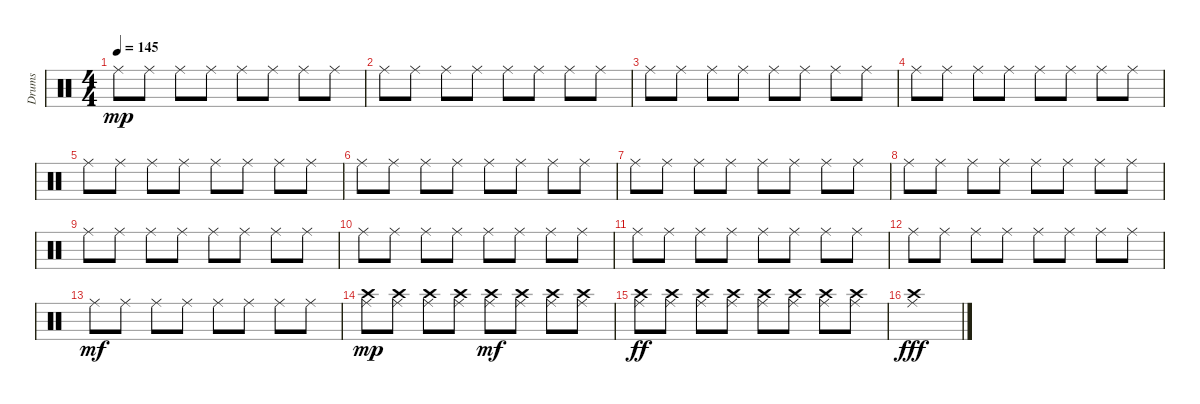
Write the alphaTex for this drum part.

\track ("Drums" "Drums") {instrument percussion}
\staff {score}
\articulation defaults
\ts (4 4)
\tempo 145
\clef neutral
\ks c "Ride (middle)".8{dy mp} "Ride (middle)".8 "Ride (middle)".8 "Ride (middle)".8 "Ride (middle)".8 "Ride (middle)".8 "Ride (middle)".8 "Ride (middle)".8
|
"Ride (middle)".8 "Ride (middle)".8 "Ride (middle)".8 "Ride (middle)".8 "Ride (middle)".8 "Ride (middle)".8 "Ride (middle)".8 "Ride (middle)".8 |
"Ride (middle)".8 "Ride (middle)".8 "Ride (middle)".8 "Ride (middle)".8 "Ride (middle)".8 "Ride (middle)".8 "Ride (middle)".8 "Ride (middle)".8 |
"Ride (middle)".8 "Ride (middle)".8 "Ride (middle)".8 "Ride (middle)".8 "Ride (middle)".8 "Ride (middle)".8 "Ride (middle)".8 "Ride (middle)".8 |
"Ride (middle)".8 "Ride (middle)".8 "Ride (middle)".8 "Ride (middle)".8 "Ride (middle)".8 "Ride (middle)".8 "Ride (middle)".8 "Ride (middle)".8 |
"Ride (middle)".8 "Ride (middle)".8 "Ride (middle)".8 "Ride (middle)".8 "Ride (middle)".8 "Ride (middle)".8 "Ride (middle)".8 "Ride (middle)".8 |
"Ride (middle)".8 "Ride (middle)".8 "Ride (middle)".8 "Ride (middle)".8 "Ride (middle)".8 "Ride (middle)".8 "Ride (middle)".8 "Ride (middle)".8 |
"Ride (middle)".8 "Ride (middle)".8 "Ride (middle)".8 "Ride (middle)".8 "Ride (middle)".8 "Ride (middle)".8 "Ride (middle)".8 "Ride (middle)".8 |
"Ride (middle)".8 "Ride (middle)".8 "Ride (middle)".8 "Ride (middle)".8 "Ride (middle)".8 "Ride (middle)".8 "Ride (middle)".8 "Ride (middle)".8 |
"Ride (middle)".8 "Ride (middle)".8 "Ride (middle)".8 "Ride (middle)".8 "Ride (middle)".8 "Ride (middle)".8 "Ride (middle)".8 "Ride (middle)".8 |
"Ride (middle)".8 "Ride (middle)".8 "Ride (middle)".8 "Ride (middle)".8 "Ride (middle)".8 "Ride (middle)".8 "Ride (middle)".8 "Ride (middle)".8 |
"Ride (middle)".8 "Ride (middle)".8 "Ride (middle)".8 "Ride (middle)".8 "Ride (middle)".8 "Ride (middle)".8 "Ride (middle)".8 "Ride (middle)".8 |
"Ride (middle)".8{dy mf} "Ride (middle)".8 "Ride (middle)".8 "Ride (middle)".8 "Ride (middle)".8 "Ride (middle)".8 "Ride (middle)".8 "Ride (middle)".8 |
("Ride (middle)" "Crash high (hit)").8{dy mp} ("Ride (middle)" "Crash high (hit)").8 ("Ride (middle)" "Crash high (hit)").8 ("Ride (middle)" "Crash high (hit)").8 ("Ride (middle)" "Crash high (hit)").8{dy mf} ("Ride (middle)" "Crash high (hit)").8 ("Ride (middle)" "Crash high (hit)").8 ("Ride (middle)" "Crash high (hit)").8 |
("Ride (middle)" "Crash high (hit)").8{dy ff} ("Ride (middle)" "Crash high (hit)").8 ("Ride (middle)" "Crash high (hit)").8 ("Ride (middle)" "Crash high (hit)").8 ("Ride (middle)" "Crash high (hit)").8 ("Ride (middle)" "Crash high (hit)").8 ("Ride (middle)" "Crash high (hit)").8 ("Ride (middle)" "Crash high (hit)").8 |
("Ride (middle)" "Crash high (hit)").1{dy fff}
